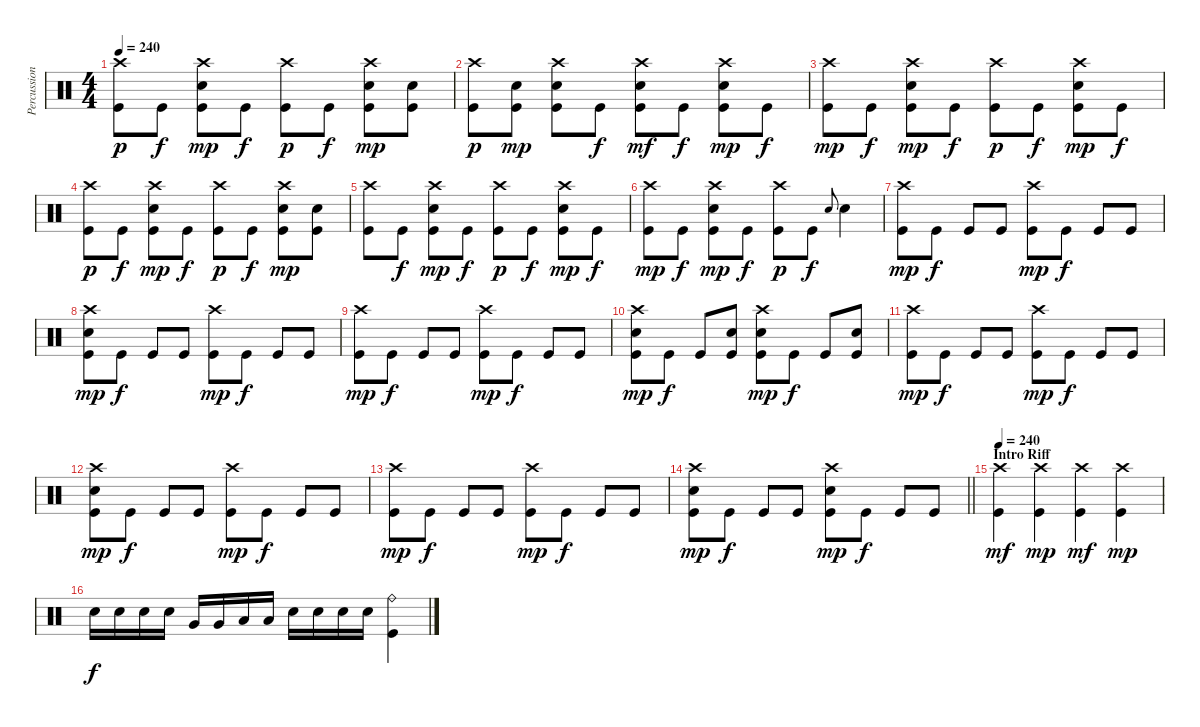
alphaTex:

\track ("Percussion" "Percussion") {instrument percussion}
\staff {score}
\articulation defaults
\ts (4 4)
\tempo 240
\clef neutral
\ks c
("Crash high (hit)" "Kick (hit)").8{dy p} "Kick (hit)".8{dy f} ("Crash high (hit)" "Electric Snare (hit)" "Kick (hit)").8{dy mp} "Kick (hit)".8{dy f} ("Crash high (hit)" "Kick (hit)").8{dy p} "Kick (hit)".8{dy f} ("Crash high (hit)" "Electric Snare (hit)" "Kick (hit)").8{dy mp} ("Electric Snare (hit)" "Kick (hit)").8 |
("Crash high (hit)" "Kick (hit)").8{dy p} ("Electric Snare (hit)" "Kick (hit)").8{dy mp} ("Crash high (hit)" "Electric Snare (hit)" "Kick (hit)").8 "Kick (hit)".8{dy f} ("Crash high (hit)" "Electric Snare (hit)" "Kick (hit)").8{dy mf} "Kick (hit)".8{dy f} ("Crash high (hit)" "Electric Snare (hit)" "Kick (hit)").8{dy mp} "Kick (hit)".8{dy f} |
("Crash high (hit)" "Kick (hit)").8{dy mp} "Kick (hit)".8{dy f} ("Crash high (hit)" "Electric Snare (hit)" "Kick (hit)").8{dy mp} "Kick (hit)".8{dy f} ("Crash high (hit)" "Kick (hit)").8{dy p} "Kick (hit)".8{dy f} ("Crash high (hit)" "Electric Snare (hit)" "Kick (hit)").8{dy mp} "Kick (hit)".8{dy f} |
("Crash high (hit)" "Kick (hit)").8{dy p} "Kick (hit)".8{dy f} ("Crash high (hit)" "Electric Snare (hit)" "Kick (hit)").8{dy mp} "Kick (hit)".8{dy f} ("Crash high (hit)" "Kick (hit)").8{dy p} "Kick (hit)".8{dy f} ("Crash high (hit)" "Electric Snare (hit)" "Kick (hit)").8{dy mp} ("Electric Snare (hit)" "Kick (hit)").8 |
("Crash high (hit)" "Kick (hit)").8 "Kick (hit)".8{dy f} ("Crash high (hit)" "Electric Snare (hit)" "Kick (hit)").8{dy mp} "Kick (hit)".8{dy f} ("Crash high (hit)" "Kick (hit)").8{dy p} "Kick (hit)".8{dy f} ("Crash high (hit)" "Electric Snare (hit)" "Kick (hit)").8{dy mp} "Kick (hit)".8{dy f} |
("Crash high (hit)" "Kick (hit)").8{dy mp} "Kick (hit)".8{dy f} ("Crash high (hit)" "Electric Snare (hit)" "Kick (hit)").8{dy mp} "Kick (hit)".8{dy f} ("Crash high (hit)" "Kick (hit)").8{dy p} "Kick (hit)".8{dy f} "Electric Snare (hit)".8{gr onbeat} "Electric Snare (hit)".4 |
("Crash high (hit)" "Kick (hit)").8{dy mp} "Kick (hit)".8{dy f} "Kick (hit)".8 "Kick (hit)".8 ("Crash high (hit)" "Kick (hit)").8{dy mp} "Kick (hit)".8{dy f} "Kick (hit)".8 "Kick (hit)".8 |
("Crash high (hit)" "Electric Snare (hit)" "Kick (hit)").8{dy mp} "Kick (hit)".8{dy f} "Kick (hit)".8 "Kick (hit)".8 ("Crash high (hit)" "Kick (hit)").8{dy mp} "Kick (hit)".8{dy f} "Kick (hit)".8 "Kick (hit)".8 |
("Crash high (hit)" "Kick (hit)").8{dy mp} "Kick (hit)".8{dy f} "Kick (hit)".8 "Kick (hit)".8 ("Crash high (hit)" "Kick (hit)").8{dy mp} "Kick (hit)".8{dy f} "Kick (hit)".8 "Kick (hit)".8 |
("Crash high (hit)" "Electric Snare (hit)" "Kick (hit)").8{dy mp} "Kick (hit)".8{dy f} "Kick (hit)".8 ("Electric Snare (hit)" "Kick (hit)").8 ("Crash high (hit)" "Electric Snare (hit)" "Kick (hit)").8{dy mp} "Kick (hit)".8{dy f} "Kick (hit)".8 ("Electric Snare (hit)" "Kick (hit)").8 |
("Crash high (hit)" "Kick (hit)").8{dy mp} "Kick (hit)".8{dy f} "Kick (hit)".8 "Kick (hit)".8 ("Crash high (hit)" "Kick (hit)").8{dy mp} "Kick (hit)".8{dy f} "Kick (hit)".8 "Kick (hit)".8 |
("Crash high (hit)" "Electric Snare (hit)" "Kick (hit)").8{dy mp} "Kick (hit)".8{dy f} "Kick (hit)".8 "Kick (hit)".8 ("Crash high (hit)" "Kick (hit)").8{dy mp} "Kick (hit)".8{dy f} "Kick (hit)".8 "Kick (hit)".8 |
("Crash high (hit)" "Kick (hit)").8{dy mp} "Kick (hit)".8{dy f} "Kick (hit)".8 "Kick (hit)".8 ("Crash high (hit)" "Kick (hit)").8{dy mp} "Kick (hit)".8{dy f} "Kick (hit)".8 "Kick (hit)".8 |
\barLineRight lightlight
("Crash high (hit)" "Electric Snare (hit)" "Kick (hit)").8{dy mp} "Kick (hit)".8{dy f} "Kick (hit)".8 "Kick (hit)".8 ("Crash high (hit)" "Electric Snare (hit)" "Kick (hit)").8{dy mp} "Kick (hit)".8{dy f} "Kick (hit)".8 "Kick (hit)".8 |
\section ("" "Intro Riff")
\tempo 240
("Crash high (hit)" "Kick (hit)").4{dy mf} ("Crash high (hit)" "Kick (hit)").4{dy mp} ("Crash high (hit)" "Kick (hit)").4{dy mf} ("Crash high (hit)" "Kick (hit)").4{dy mp} |
"Electric Snare (hit)".16{dy f} "Electric Snare (hit)".16 "Electric Snare (hit)".16 "Electric Snare (hit)".16 "Very Low Tom (hit)".16 "Very Low Tom (hit)".16 "Low Floor Tom (hit)".16 "Low Floor Tom (hit)".16 "Electric Snare (hit)".16 "Electric Snare (hit)".16 "Electric Snare (hit)".16 "Electric Snare (hit)".16 ("Ride (bell)" "Kick (hit)").4
